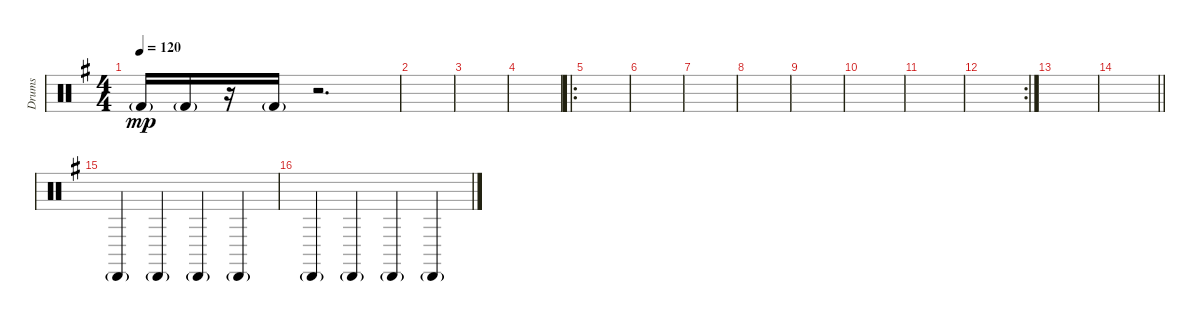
\track ("Drums" "Drums") {instrument percussion}
\staff {score}
\articulation defaults
\ts (4 4)
\tempo 120
\clef neutral
\ks g "Kick (hit) 2"{g}.16{dy mp} "Kick (hit) 2"{g}.16
r.16 "Kick (hit) 2"{g}.16 r.2{d} |
|
|
|
\ro
|
|
|
|
|
|
|
\rc 2
|
|
\barLineRight lightlight
|
"Cabasa (hit)"{g}.4 "Cabasa (hit)"{g}.4 "Cabasa (hit)"{g}.4 "Cabasa (hit)"{g}.4 |
"Cabasa (hit)"{g}.4 "Cabasa (hit)"{g}.4 "Cabasa (hit)"{g}.4 "Cabasa (hit)"{g}.4
